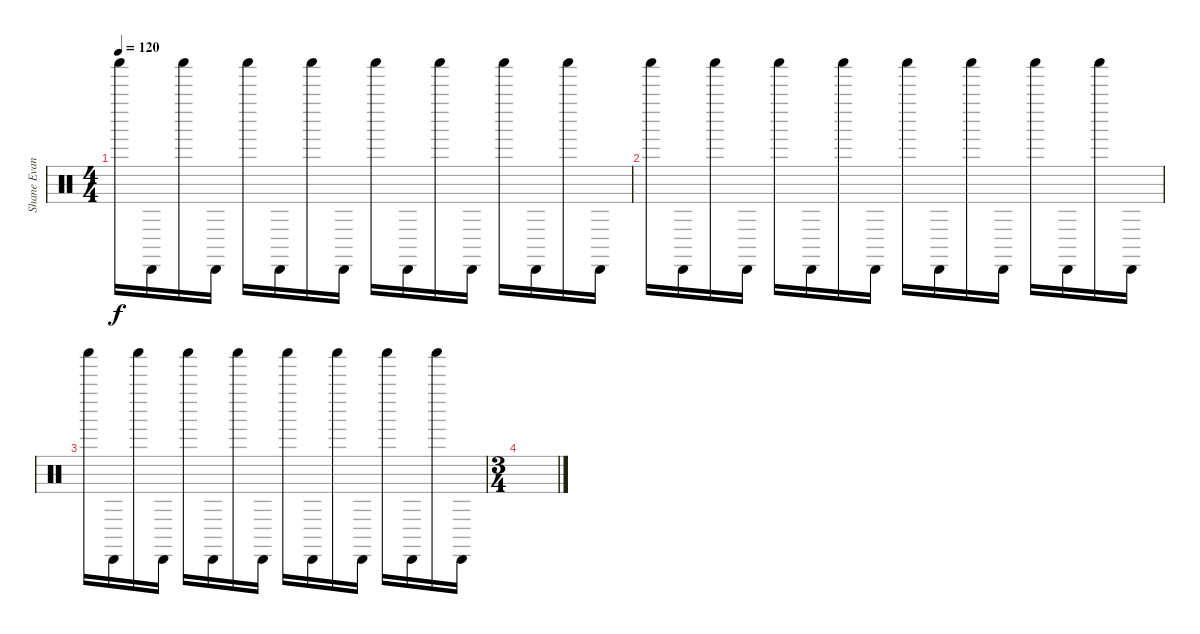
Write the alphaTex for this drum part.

\track ("Shane Evans" "Shane Evan") {instrument percussion}
\staff {score}
\articulation defaults
\ts (4 4)
\tempo 120
\clef neutral
\ks c "Shaker (hit)".16{dy f} "Cabasa (hit)".16 "Shaker (hit)".16 "Cabasa (hit)".16 "Shaker (hit)".16 "Cabasa (hit)".16 "Shaker (hit)".16 "Cabasa (hit)".16 "Shaker (hit)".16 "Cabasa (hit)".16 "Shaker (hit)".16 "Cabasa (hit)".16 "Shaker (hit)".16 "Cabasa (hit)".16 "Shaker (hit)".16 "Cabasa (hit)".16
|
"Shaker (hit)".16 "Cabasa (hit)".16 "Shaker (hit)".16 "Cabasa (hit)".16 "Shaker (hit)".16 "Cabasa (hit)".16 "Shaker (hit)".16 "Cabasa (hit)".16 "Shaker (hit)".16 "Cabasa (hit)".16 "Shaker (hit)".16 "Cabasa (hit)".16 "Shaker (hit)".16 "Cabasa (hit)".16 "Shaker (hit)".16 "Cabasa (hit)".16 |
"Shaker (hit)".16 "Cabasa (hit)".16 "Shaker (hit)".16 "Cabasa (hit)".16 "Shaker (hit)".16 "Cabasa (hit)".16 "Shaker (hit)".16 "Cabasa (hit)".16 "Shaker (hit)".16 "Cabasa (hit)".16 "Shaker (hit)".16 "Cabasa (hit)".16 "Shaker (hit)".16 "Cabasa (hit)".16 "Shaker (hit)".16 "Cabasa (hit)".16 |
\ts (3 4)
